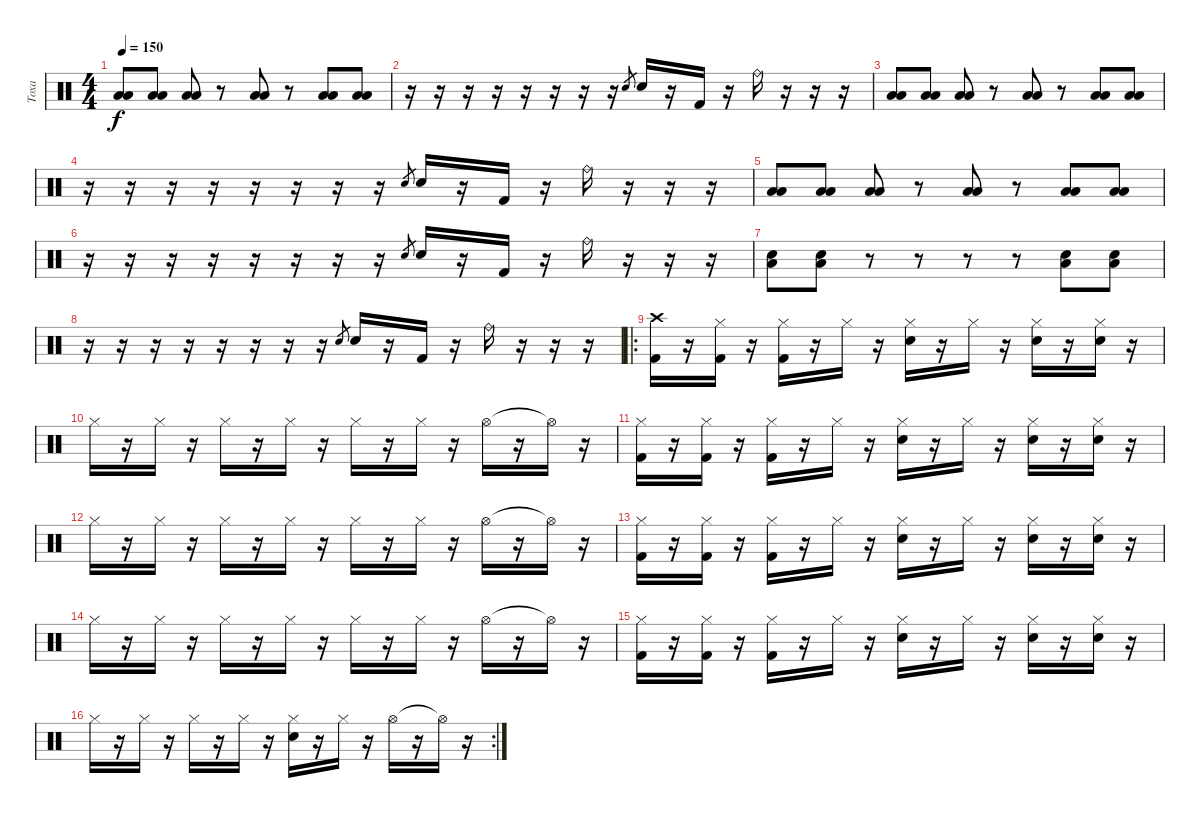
\track ("Тоха" "Тоха") {instrument percussion}
\staff {score}
\articulation defaults
\ts (4 4)
\tempo 150
\clef neutral
\ks c
("Low Floor Tom (hit)" "Low Tom (hit)").8{dy f} ("Low Floor Tom (hit)" "Low Tom (hit)").8 ("Low Floor Tom (hit)" "Low Tom (hit)").8 r.8 ("Low Floor Tom (hit)" "Low Tom (hit)").8 r.8 ("Low Floor Tom (hit)" "Low Tom (hit)").8 ("Low Floor Tom (hit)" "Low Tom (hit)").8 |
r.16 r.16 r.16 r.16 r.16 r.16 r.16 r.16 "Electric Snare (hit)".8{gr} "Electric Snare (hit)".16 r.16 "Kick (hit) 2".16 r.16 "Ride (bell)".16 r.16 r.16 r.16 |
("Low Floor Tom (hit)" "Low Tom (hit)").8 ("Low Floor Tom (hit)" "Low Tom (hit)").8 ("Low Floor Tom (hit)" "Low Tom (hit)").8 r.8 ("Low Floor Tom (hit)" "Low Tom (hit)").8 r.8 ("Low Floor Tom (hit)" "Low Tom (hit)").8 ("Low Floor Tom (hit)" "Low Tom (hit)").8 |
r.16 r.16 r.16 r.16 r.16 r.16 r.16 r.16 "Electric Snare (hit)".8{gr} "Electric Snare (hit)".16 r.16 "Kick (hit) 2".16 r.16 "Ride (bell)".16 r.16 r.16 r.16 |
("Low Floor Tom (hit)" "Low Tom (hit)").8 ("Low Floor Tom (hit)" "Low Tom (hit)").8 ("Low Floor Tom (hit)" "Low Tom (hit)").8 r.8 ("Low Floor Tom (hit)" "Low Tom (hit)").8 r.8 ("Low Floor Tom (hit)" "Low Tom (hit)").8 ("Low Floor Tom (hit)" "Low Tom (hit)").8 |
r.16 r.16 r.16 r.16 r.16 r.16 r.16 r.16 "Electric Snare (hit)".8{gr} "Electric Snare (hit)".16 r.16 "Kick (hit) 2".16 r.16 "Ride (bell)".16 r.16 r.16 r.16 |
("Electric Snare (hit)" "Low Floor Tom (hit)").8 ("Electric Snare (hit)" "Low Floor Tom (hit)").8 r.8 r.8 r.8 r.8 ("Electric Snare (hit)" "Low Floor Tom (hit)").8 ("Electric Snare (hit)" "Low Floor Tom (hit)").8 |
r.16 r.16 r.16 r.16 r.16 r.16 r.16 r.16 "Electric Snare (hit)".8{gr} "Electric Snare (hit)".16 r.16 "Kick (hit) 2".16 r.16 "Ride (bell)".16 r.16 r.16 r.16 |
\ro
("Crash high (hit)" "Kick (hit) 2").16 r.16 ("Hi-Hat (closed)" "Kick (hit) 2").16 r.16 ("Hi-Hat (closed)" "Kick (hit) 2").16 r.16 "Hi-Hat (closed)".16 r.16 ("Hi-Hat (closed)" "Electric Snare (hit)").16 r.16 "Hi-Hat (closed)".16 r.16 ("Hi-Hat (closed)" "Electric Snare (hit)").16 r.16 ("Hi-Hat (closed)" "Electric Snare (hit)").16 r.16 |
"Hi-Hat (closed)".16 r.16 "Hi-Hat (closed)".16 r.16 "Hi-Hat (closed)".16 r.16 "Hi-Hat (closed)".16 r.16 "Hi-Hat (closed)".16 r.16 "Hi-Hat (closed)".16 r.16 "Hi-Hat (open)".16 r.16 "Hi-Hat (open)"{t}.16 r.16 |
("Hi-Hat (closed)" "Kick (hit) 2").16 r.16 ("Hi-Hat (closed)" "Kick (hit) 2").16 r.16 ("Hi-Hat (closed)" "Kick (hit) 2").16 r.16 "Hi-Hat (closed)".16 r.16 ("Hi-Hat (closed)" "Electric Snare (hit)").16 r.16 "Hi-Hat (closed)".16 r.16 ("Hi-Hat (closed)" "Electric Snare (hit)").16 r.16 ("Hi-Hat (closed)" "Electric Snare (hit)").16 r.16 |
"Hi-Hat (closed)".16 r.16 "Hi-Hat (closed)".16 r.16 "Hi-Hat (closed)".16 r.16 "Hi-Hat (closed)".16 r.16 "Hi-Hat (closed)".16 r.16 "Hi-Hat (closed)".16 r.16 "Hi-Hat (open)".16 r.16 "Hi-Hat (open)"{t}.16 r.16 |
("Hi-Hat (closed)" "Kick (hit) 2").16 r.16 ("Hi-Hat (closed)" "Kick (hit) 2").16 r.16 ("Hi-Hat (closed)" "Kick (hit) 2").16 r.16 "Hi-Hat (closed)".16 r.16 ("Hi-Hat (closed)" "Electric Snare (hit)").16 r.16 "Hi-Hat (closed)".16 r.16 ("Hi-Hat (closed)" "Electric Snare (hit)").16 r.16 ("Hi-Hat (closed)" "Electric Snare (hit)").16 r.16 |
"Hi-Hat (closed)".16 r.16 "Hi-Hat (closed)".16 r.16 "Hi-Hat (closed)".16 r.16 "Hi-Hat (closed)".16 r.16 "Hi-Hat (closed)".16 r.16 "Hi-Hat (closed)".16 r.16 "Hi-Hat (open)".16 r.16 "Hi-Hat (open)"{t}.16 r.16 |
("Hi-Hat (closed)" "Kick (hit) 2").16 r.16 ("Hi-Hat (closed)" "Kick (hit) 2").16 r.16 ("Hi-Hat (closed)" "Kick (hit) 2").16 r.16 "Hi-Hat (closed)".16 r.16 ("Hi-Hat (closed)" "Electric Snare (hit)").16 r.16 "Hi-Hat (closed)".16 r.16 ("Hi-Hat (closed)" "Electric Snare (hit)").16 r.16 ("Hi-Hat (closed)" "Electric Snare (hit)").16 r.16 |
\rc 2 "Hi-Hat (closed)".16
r.16 "Hi-Hat (closed)".16 r.16 "Hi-Hat (closed)".16 r.16 "Hi-Hat (closed)".16 r.16 ("Hi-Hat (closed)" "Electric Snare (hit)").16 r.16 "Hi-Hat (closed)".16 r.16 "Hi-Hat (open)".16 r.16 "Hi-Hat (open)"{t}.16 r.16
